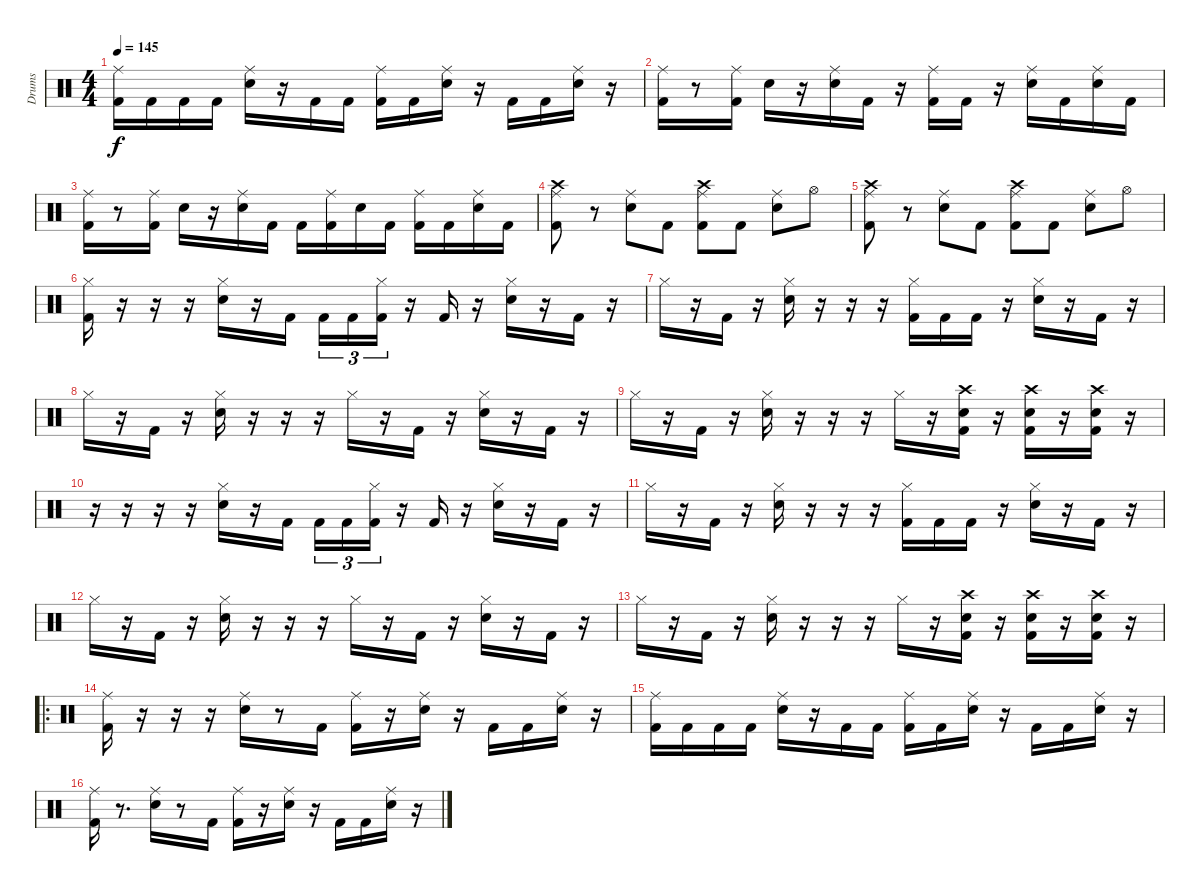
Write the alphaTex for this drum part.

\track ("Drums" "Drums") {instrument percussion}
\staff {score}
\articulation defaults
\ts (4 4)
\tempo 145
\clef neutral
\ks c
("Ride (middle)" "Kick (hit) 2").16{dy f} "Kick (hit) 2".16 "Kick (hit) 2".16 "Kick (hit) 2".16 ("Ride (middle)" "Electric Snare (hit)").16 r.16 "Kick (hit) 2".16 "Kick (hit) 2".16 ("Ride (middle)" "Kick (hit) 2").16 "Kick (hit) 2".16 ("Ride (middle)" "Electric Snare (hit)").16 r.16 "Kick (hit) 2".16 "Kick (hit) 2".16 ("Ride (middle)" "Electric Snare (hit)").16 r.16 |
("Ride (middle)" "Kick (hit) 2").16 r.8 ("Ride (middle)" "Kick (hit) 2").16 "Electric Snare (hit)".16 r.16 ("Ride (middle)" "Electric Snare (hit)").16 "Kick (hit) 2".16 r.16 ("Ride (middle)" "Kick (hit) 2").16 "Kick (hit) 2".16 r.16 ("Ride (middle)" "Electric Snare (hit)").16 "Kick (hit) 2".16 ("Ride (middle)" "Electric Snare (hit)").16 "Kick (hit) 2".16 |
("Ride (middle)" "Kick (hit) 2").16 r.8 ("Ride (middle)" "Kick (hit) 2").16 "Electric Snare (hit)".16 r.16 ("Ride (middle)" "Electric Snare (hit)").16 "Kick (hit) 2".16 "Kick (hit) 2".16 ("Ride (middle)" "Kick (hit) 2").16 "Electric Snare (hit)".16 "Kick (hit) 2".16 ("Ride (middle)" "Kick (hit) 2").16 "Kick (hit) 2".16 ("Ride (middle)" "Electric Snare (hit)").16 "Kick (hit) 2".16 |
("Ride (middle)" "Kick (hit) 2" "Crash high (hit)").8 r.8 ("Ride (middle)" "Electric Snare (hit)").8 "Kick (hit) 2".8 ("Ride (middle)" "Kick (hit) 2" "Crash high (hit)").8 "Kick (hit) 2".8 ("Ride (middle)" "Electric Snare (hit)").8 "Hi-Hat (open)".8 |
("Ride (middle)" "Kick (hit) 2" "Crash high (hit)").8 r.8 ("Ride (middle)" "Electric Snare (hit)").8 "Kick (hit) 2".8 ("Ride (middle)" "Kick (hit) 2" "Crash high (hit)").8 "Kick (hit) 2".8 ("Ride (middle)" "Electric Snare (hit)").8 "Hi-Hat (open)".8 |
("Hi-Hat (closed)" "Kick (hit) 2").16 r.16 r.16 r.16 ("Hi-Hat (closed)" "Electric Snare (hit)").16 r.16 "Kick (hit) 2".16 "Kick (hit) 2".16{tu (3 2)} "Kick (hit) 2".16{tu (3 2)} ("Hi-Hat (closed)" "Kick (hit) 2").16{tu (3 2)} r.16 "Kick (hit) 2".16 r.16 ("Hi-Hat (closed)" "Electric Snare (hit)").16 r.16 "Kick (hit) 2".16 r.16 |
"Hi-Hat (closed)".16 r.16 "Kick (hit) 2".16 r.16 ("Hi-Hat (closed)" "Electric Snare (hit)").16 r.16 r.16 r.16 ("Hi-Hat (closed)" "Kick (hit) 2").16 "Kick (hit) 2".16 "Kick (hit) 2".16 r.16 ("Hi-Hat (closed)" "Electric Snare (hit)").16 r.16 "Kick (hit) 2".16 r.16 |
"Hi-Hat (closed)".16 r.16 "Kick (hit) 2".16 r.16 ("Hi-Hat (closed)" "Electric Snare (hit)").16 r.16 r.16 r.16 "Hi-Hat (closed)".16 r.16 "Kick (hit) 2".16 r.16 ("Hi-Hat (closed)" "Electric Snare (hit)").16 r.16 "Kick (hit) 2".16 r.16 |
"Hi-Hat (closed)".16 r.16 "Kick (hit) 2".16 r.16 ("Hi-Hat (closed)" "Electric Snare (hit)").16 r.16 r.16 r.16 "Hi-Hat (closed)".16 r.16 ("Crash high (hit)" "Electric Snare (hit)" "Kick (hit) 2").16 r.16 ("Crash high (hit)" "Electric Snare (hit)" "Kick (hit) 2").16 r.16 ("Crash high (hit)" "Electric Snare (hit)" "Kick (hit) 2").16 r.16 |
r.16 r.16 r.16 r.16 ("Hi-Hat (closed)" "Electric Snare (hit)").16 r.16 "Kick (hit) 2".16 "Kick (hit) 2".16{tu (3 2)} "Kick (hit) 2".16{tu (3 2)} ("Hi-Hat (closed)" "Kick (hit) 2").16{tu (3 2)} r.16 "Kick (hit) 2".16 r.16 ("Hi-Hat (closed)" "Electric Snare (hit)").16 r.16 "Kick (hit) 2".16 r.16 |
"Hi-Hat (closed)".16 r.16 "Kick (hit) 2".16 r.16 ("Hi-Hat (closed)" "Electric Snare (hit)").16 r.16 r.16 r.16 ("Hi-Hat (closed)" "Kick (hit) 2").16 "Kick (hit) 2".16 "Kick (hit) 2".16 r.16 ("Hi-Hat (closed)" "Electric Snare (hit)").16 r.16 "Kick (hit) 2".16 r.16 |
"Hi-Hat (closed)".16 r.16 "Kick (hit) 2".16 r.16 ("Hi-Hat (closed)" "Electric Snare (hit)").16 r.16 r.16 r.16 "Hi-Hat (closed)".16 r.16 "Kick (hit) 2".16 r.16 ("Hi-Hat (closed)" "Electric Snare (hit)").16 r.16 "Kick (hit) 2".16 r.16 |
"Hi-Hat (closed)".16 r.16 "Kick (hit) 2".16 r.16 ("Hi-Hat (closed)" "Electric Snare (hit)").16 r.16 r.16 r.16 "Hi-Hat (closed)".16 r.16 ("Crash high (hit)" "Electric Snare (hit)" "Kick (hit) 2").16 r.16 ("Crash high (hit)" "Electric Snare (hit)" "Kick (hit) 2").16 r.16 ("Crash high (hit)" "Electric Snare (hit)" "Kick (hit) 2").16 r.16 |
\ro
("Ride (middle)" "Kick (hit) 2").16 r.16 r.16 r.16 ("Ride (middle)" "Electric Snare (hit)").16 r.8 "Kick (hit) 2".16 ("Ride (middle)" "Kick (hit) 2").16 r.16 ("Ride (middle)" "Electric Snare (hit)").16 r.16 "Kick (hit) 2".16 "Kick (hit) 2".16 ("Ride (middle)" "Electric Snare (hit)").16 r.16 |
("Ride (middle)" "Kick (hit) 2").16 "Kick (hit) 2".16 "Kick (hit) 2".16 "Kick (hit) 2".16 ("Ride (middle)" "Electric Snare (hit)").16 r.16 "Kick (hit) 2".16 "Kick (hit) 2".16 ("Ride (middle)" "Kick (hit) 2").16 "Kick (hit) 2".16 ("Ride (middle)" "Electric Snare (hit)").16 r.16 "Kick (hit) 2".16 "Kick (hit) 2".16 ("Ride (middle)" "Electric Snare (hit)").16 r.16 |
("Ride (middle)" "Kick (hit) 2").16 r.8{d} ("Ride (middle)" "Electric Snare (hit)").16 r.8 "Kick (hit) 2".16 ("Ride (middle)" "Kick (hit) 2").16 r.16 ("Ride (middle)" "Electric Snare (hit)").16 r.16 "Kick (hit) 2".16 "Kick (hit) 2".16 ("Ride (middle)" "Electric Snare (hit)").16 r.16
